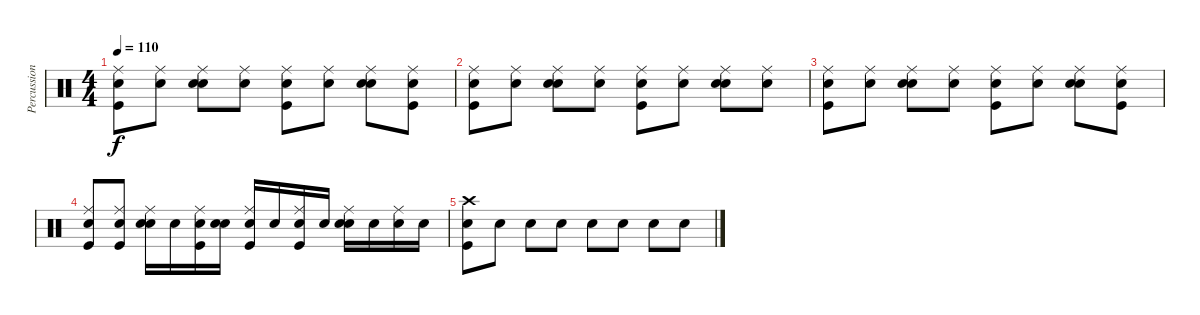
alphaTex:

\track ("Percussion" "Percussion") {instrument percussion}
\staff {score}
\articulation defaults
\ts (4 4)
\tempo 110
\clef neutral
\ks c
("Snare (hit)" "Ride (middle)" "Kick (hit)").8{dy f} ("Snare (hit)" "Ride (middle)").8 ("Snare (hit)" "Ride (middle)" "Snare (hit) 2").8 ("Snare (hit)" "Ride (middle)").8 ("Snare (hit)" "Ride (middle)" "Kick (hit)").8 ("Snare (hit)" "Ride (middle)").8 ("Snare (hit)" "Ride (middle)" "Snare (hit) 2").8 ("Snare (hit)" "Ride (middle)" "Kick (hit)").8 |
("Snare (hit)" "Ride (middle)" "Kick (hit)").8 ("Snare (hit)" "Ride (middle)").8 ("Snare (hit)" "Ride (middle)" "Snare (hit) 2").8 ("Snare (hit)" "Ride (middle)").8 ("Snare (hit)" "Ride (middle)" "Kick (hit)").8 ("Snare (hit)" "Ride (middle)").8 ("Snare (hit)" "Ride (middle)" "Snare (hit) 2").8 ("Snare (hit)" "Ride (middle)").8 |
("Snare (hit)" "Ride (middle)" "Kick (hit)").8 ("Snare (hit)" "Ride (middle)").8 ("Snare (hit)" "Ride (middle)" "Snare (hit) 2").8 ("Snare (hit)" "Ride (middle)").8 ("Snare (hit)" "Ride (middle)" "Kick (hit)").8 ("Snare (hit)" "Ride (middle)").8 ("Snare (hit)" "Ride (middle)" "Snare (hit) 2").8 ("Snare (hit)" "Ride (middle)" "Kick (hit)").8 |
("Snare (hit)" "Ride (middle)" "Kick (hit)").8 ("Snare (hit)" "Ride (middle)" "Kick (hit)").8 ("Snare (hit)" "Ride (middle)" "Snare (hit) 2").16 "Snare (hit)".16 ("Snare (hit)" "Ride (middle)" "Kick (hit)").16 ("Snare (hit)" "Snare (hit) 2").16 ("Snare (hit)" "Ride (middle)" "Kick (hit)").16 "Snare (hit)".16 ("Snare (hit)" "Ride (middle)" "Kick (hit)").16 "Snare (hit)".16 ("Snare (hit)" "Ride (middle)" "Snare (hit) 2").16 "Snare (hit)".16 ("Snare (hit)" "Ride (middle)").16 "Snare (hit)".16 |
("Snare (hit)" "Crash high (hit)" "Kick (hit)").8 "Snare (hit)".8 "Snare (hit)".8 "Snare (hit)".8 "Snare (hit)".8 "Snare (hit)".8 "Snare (hit)".8 "Snare (hit)".8
